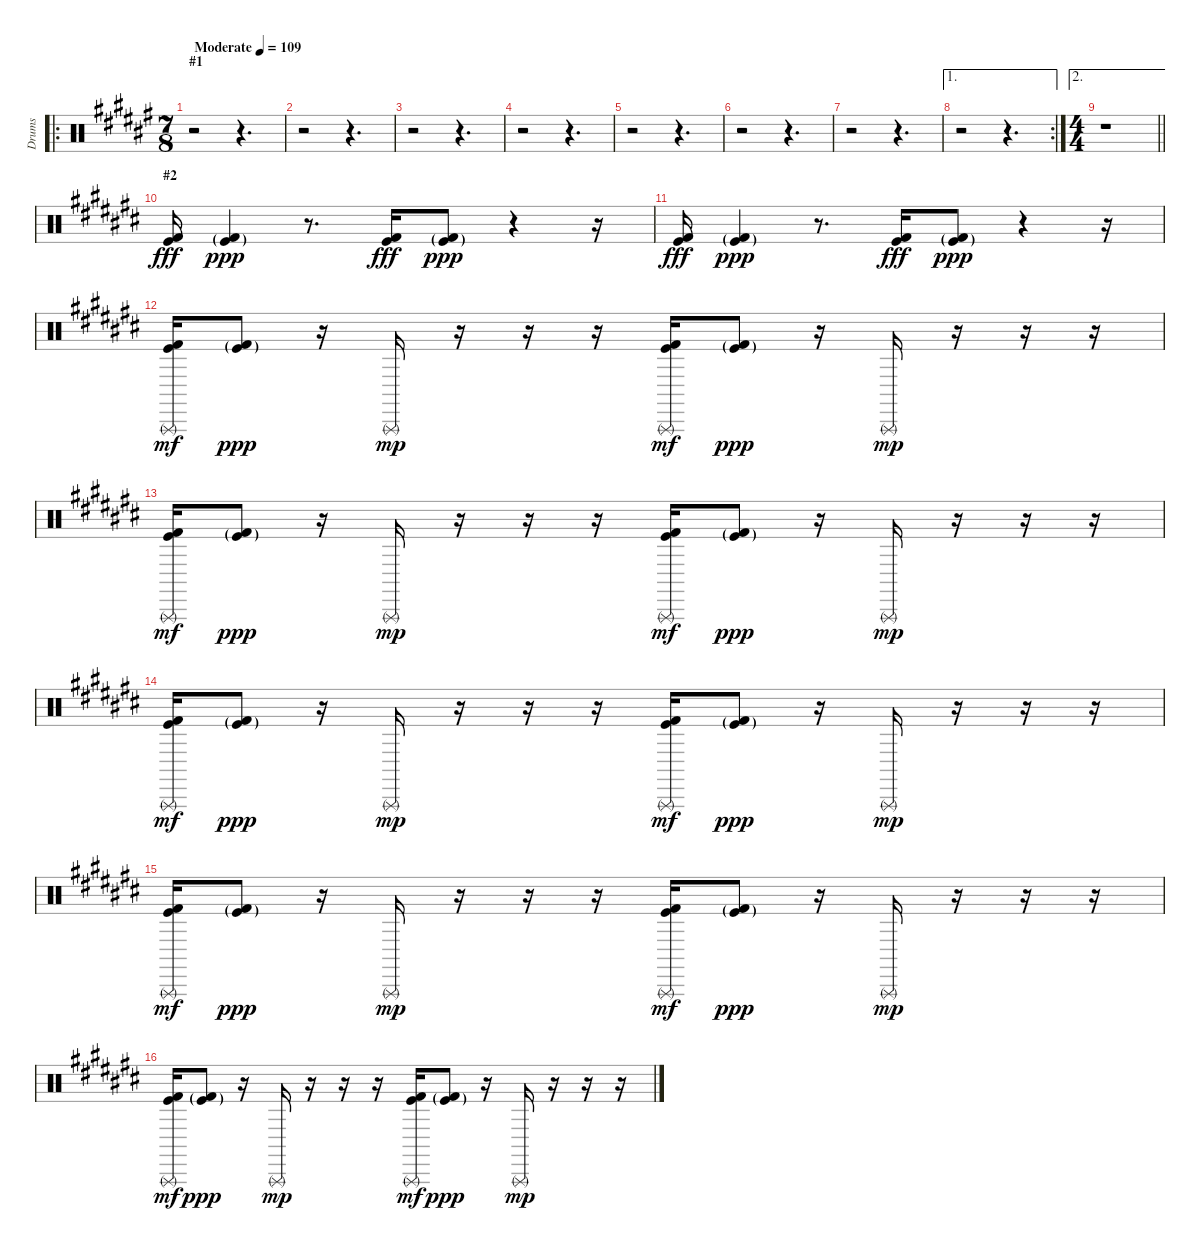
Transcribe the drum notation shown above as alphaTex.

\track ("Drums" "Drums") {instrument percussion}
\staff {score}
\articulation defaults
\ro
\ts (7 8)
\section ("" "#1")
\tempo (109 "Moderate")
\clef neutral
\ks f#
r.2{dy fff} r.4{d} |
r.2 r.4{d} |
r.2 r.4{d} |
r.2 r.4{d} |
r.2 r.4{d} |
r.2 r.4{d} |
r.2 r.4{d} |
\ae 1
\rc 2
r.2 r.4{d} |
\ae 2
\ts (4 4)
\barLineRight lightlight
r.1 |
\section ("" "#2")
\ks c#
("Kick (hit) 2" "Kick (hit)").16 ("Kick (hit) 2"{g} "Kick (hit)"{g}).4{dy ppp} r.8{d} ("Kick (hit) 2" "Kick (hit)").16{dy fff} ("Kick (hit) 2"{g} "Kick (hit)"{g}).8{dy ppp} r.4 r.16 |
("Kick (hit) 2" "Kick (hit)").16{dy fff} ("Kick (hit) 2"{g} "Kick (hit)"{g}).4{dy ppp} r.8{d} ("Kick (hit) 2" "Kick (hit)").16{dy fff} ("Kick (hit) 2"{g} "Kick (hit)"{g}).8{dy ppp} r.4 r.16 |
("Kick (hit) 2" "Kick (hit)" "Triangle (rnute)").16{dy mf} ("Kick (hit) 2"{g} "Kick (hit)"{g}).8{dy ppp} r.16 "Triangle (rnute)".16{dy mp} r.16 r.16 r.16 ("Kick (hit) 2" "Kick (hit)" "Triangle (rnute)").16{dy mf} ("Kick (hit) 2"{g} "Kick (hit)"{g}).8{dy ppp} r.16 "Triangle (rnute)".16{dy mp} r.16 r.16 r.16 |
("Kick (hit) 2" "Kick (hit)" "Triangle (rnute)").16{dy mf} ("Kick (hit) 2"{g} "Kick (hit)"{g}).8{dy ppp} r.16 "Triangle (rnute)".16{dy mp} r.16 r.16 r.16 ("Kick (hit) 2" "Kick (hit)" "Triangle (rnute)").16{dy mf} ("Kick (hit) 2"{g} "Kick (hit)"{g}).8{dy ppp} r.16 "Triangle (rnute)".16{dy mp} r.16 r.16 r.16 |
("Kick (hit) 2" "Kick (hit)" "Triangle (rnute)").16{dy mf} ("Kick (hit) 2"{g} "Kick (hit)"{g}).8{dy ppp} r.16 "Triangle (rnute)".16{dy mp} r.16 r.16 r.16 ("Kick (hit) 2" "Kick (hit)" "Triangle (rnute)").16{dy mf} ("Kick (hit) 2"{g} "Kick (hit)"{g}).8{dy ppp} r.16 "Triangle (rnute)".16{dy mp} r.16 r.16 r.16 |
("Kick (hit) 2" "Kick (hit)" "Triangle (rnute)").16{dy mf} ("Kick (hit) 2"{g} "Kick (hit)"{g}).8{dy ppp} r.16 "Triangle (rnute)".16{dy mp} r.16 r.16 r.16 ("Kick (hit) 2" "Kick (hit)" "Triangle (rnute)").16{dy mf} ("Kick (hit) 2"{g} "Kick (hit)"{g}).8{dy ppp} r.16 "Triangle (rnute)".16{dy mp} r.16 r.16 r.16 |
("Kick (hit) 2" "Kick (hit)" "Triangle (rnute)").16{dy mf} ("Kick (hit) 2"{g} "Kick (hit)"{g}).8{dy ppp} r.16 "Triangle (rnute)".16{dy mp} r.16 r.16 r.16 ("Kick (hit) 2" "Kick (hit)" "Triangle (rnute)").16{dy mf} ("Kick (hit) 2"{g} "Kick (hit)"{g}).8{dy ppp} r.16 "Triangle (rnute)".16{dy mp} r.16 r.16 r.16
